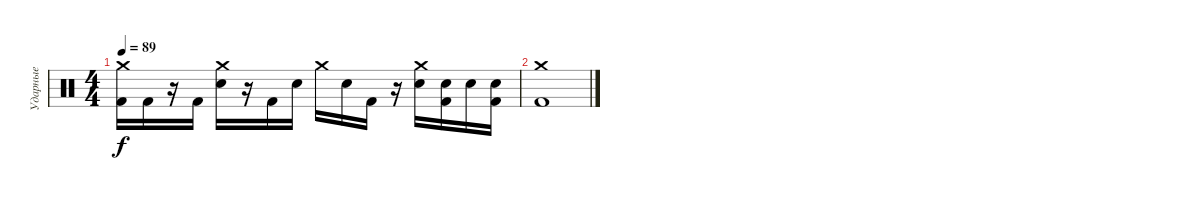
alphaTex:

\track ("Ударные" "Ударные") {instrument percussion}
\staff {score}
\articulation defaults
\ts (4 4)
\tempo 89
\clef neutral
\ks c
("Crash medium (hit)" "Kick (hit) 2").16{dy f} "Kick (hit) 2".16 r.16 "Kick (hit) 2".16 ("Crash medium (hit)" "Electric Snare (hit)").16 r.16 "Kick (hit) 2".16 "Electric Snare (hit)".16 "Crash medium (hit)".16 "Electric Snare (hit)".16 "Kick (hit) 2".16 r.16 ("Crash medium (hit)" "Electric Snare (hit)").16 ("Electric Snare (hit)" "Kick (hit) 2").16 "Electric Snare (hit)".16 ("Electric Snare (hit)" "Kick (hit) 2").16 |
("Crash medium (hit)" "Kick (hit) 2").1
